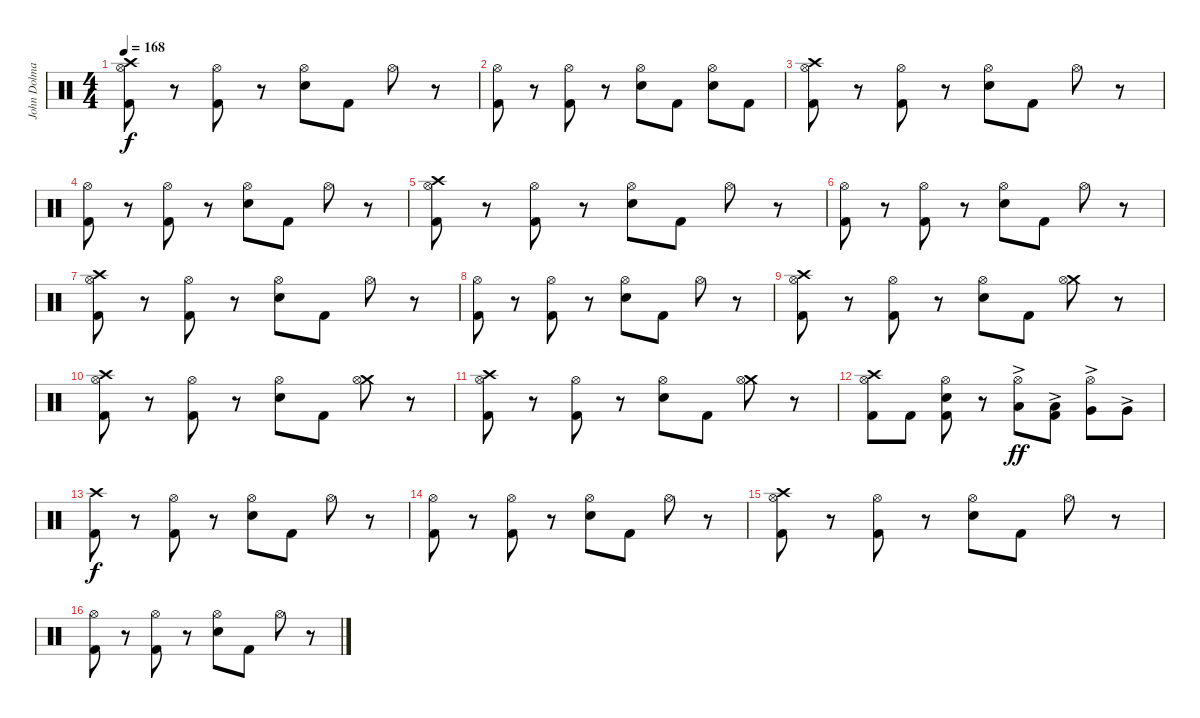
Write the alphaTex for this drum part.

\track ("John Dolmayan" "John Dolma") {instrument percussion}
\staff {score}
\articulation defaults
\ts (4 4)
\tempo 168
\clef neutral
\ks c
("Crash high (hit)" "Hi-Hat (open)" "Kick (hit) 2").8{dy f} r.8 ("Hi-Hat (open)" "Kick (hit) 2").8 r.8 ("Hi-Hat (open)" "Electric Snare (hit)").8 "Kick (hit) 2".8 "Hi-Hat (open)".8 r.8 |
("Hi-Hat (open)" "Kick (hit) 2").8 r.8 ("Hi-Hat (open)" "Kick (hit) 2").8 r.8 ("Hi-Hat (open)" "Electric Snare (hit)").8 "Kick (hit) 2".8 ("Hi-Hat (open)" "Electric Snare (hit)").8 "Kick (hit) 2".8 |
("Crash high (hit)" "Hi-Hat (open)" "Kick (hit) 2").8 r.8 ("Hi-Hat (open)" "Kick (hit) 2").8 r.8 ("Hi-Hat (open)" "Electric Snare (hit)").8 "Kick (hit) 2".8 "Hi-Hat (open)".8 r.8 |
("Hi-Hat (open)" "Kick (hit) 2").8 r.8 ("Hi-Hat (open)" "Kick (hit) 2").8 r.8 ("Hi-Hat (open)" "Electric Snare (hit)").8 "Kick (hit) 2".8 "Hi-Hat (open)".8 r.8 |
("Crash high (hit)" "Hi-Hat (open)" "Kick (hit) 2").8 r.8 ("Hi-Hat (open)" "Kick (hit) 2").8 r.8 ("Hi-Hat (open)" "Electric Snare (hit)").8 "Kick (hit) 2".8 "Hi-Hat (open)".8 r.8 |
("Hi-Hat (open)" "Kick (hit) 2").8 r.8 ("Hi-Hat (open)" "Kick (hit) 2").8 r.8 ("Hi-Hat (open)" "Electric Snare (hit)").8 "Kick (hit) 2".8 "Hi-Hat (open)".8 r.8 |
("Crash high (hit)" "Hi-Hat (open)" "Kick (hit) 2").8 r.8 ("Hi-Hat (open)" "Kick (hit) 2").8 r.8 ("Hi-Hat (open)" "Electric Snare (hit)").8 "Kick (hit) 2".8 "Hi-Hat (open)".8 r.8 |
("Hi-Hat (open)" "Kick (hit) 2").8 r.8 ("Hi-Hat (open)" "Kick (hit) 2").8 r.8 ("Hi-Hat (open)" "Electric Snare (hit)").8 "Kick (hit) 2".8 "Hi-Hat (open)".8 r.8 |
("Crash high (hit)" "Hi-Hat (open)" "Kick (hit) 2").8 r.8 ("Hi-Hat (open)" "Kick (hit) 2").8 r.8 ("Hi-Hat (open)" "Electric Snare (hit)").8 "Kick (hit) 2".8 ("Crash medium (hit)" "Hi-Hat (open)").8 r.8 |
("Crash high (hit)" "Hi-Hat (open)" "Kick (hit) 2").8 r.8 ("Hi-Hat (open)" "Kick (hit) 2").8 r.8 ("Hi-Hat (open)" "Electric Snare (hit)").8 "Kick (hit) 2".8 ("Crash medium (hit)" "Hi-Hat (open)").8 r.8 |
("Crash high (hit)" "Hi-Hat (open)" "Kick (hit) 2").8 r.8 ("Hi-Hat (open)" "Kick (hit) 2").8 r.8 ("Hi-Hat (open)" "Electric Snare (hit)").8 "Kick (hit) 2".8 ("Crash medium (hit)" "Hi-Hat (open)").8 r.8 |
("Crash high (hit)" "Hi-Hat (open)" "Kick (hit) 2").8 "Kick (hit) 2".8 ("Hi-Hat (open)" "Electric Snare (hit)" "Kick (hit) 2").8 r.8 ("Hi-Hat (open)" "Low Tom (hit)"{ac}).8{dy ff} ("Low Tom (hit)"{ac} "Kick (hit) 2").8 ("Hi-Hat (open)" "Very Low Tom (hit)"{ac}).8 "Very Low Tom (hit)"{ac}.8 |
("Crash high (hit)" "Kick (hit) 2").8{dy f} r.8 ("Hi-Hat (open)" "Kick (hit) 2").8 r.8 ("Hi-Hat (open)" "Electric Snare (hit)").8 "Kick (hit) 2".8 "Hi-Hat (open)".8 r.8 |
("Hi-Hat (open)" "Kick (hit) 2").8 r.8 ("Hi-Hat (open)" "Kick (hit) 2").8 r.8 ("Hi-Hat (open)" "Electric Snare (hit)").8 "Kick (hit) 2".8 "Hi-Hat (open)".8 r.8 |
("Crash high (hit)" "Hi-Hat (open)" "Kick (hit) 2").8 r.8 ("Hi-Hat (open)" "Kick (hit) 2").8 r.8 ("Hi-Hat (open)" "Electric Snare (hit)").8 "Kick (hit) 2".8 "Hi-Hat (open)".8 r.8 |
("Hi-Hat (open)" "Kick (hit) 2").8 r.8 ("Hi-Hat (open)" "Kick (hit) 2").8 r.8 ("Hi-Hat (open)" "Electric Snare (hit)").8 "Kick (hit) 2".8 "Hi-Hat (open)".8 r.8
